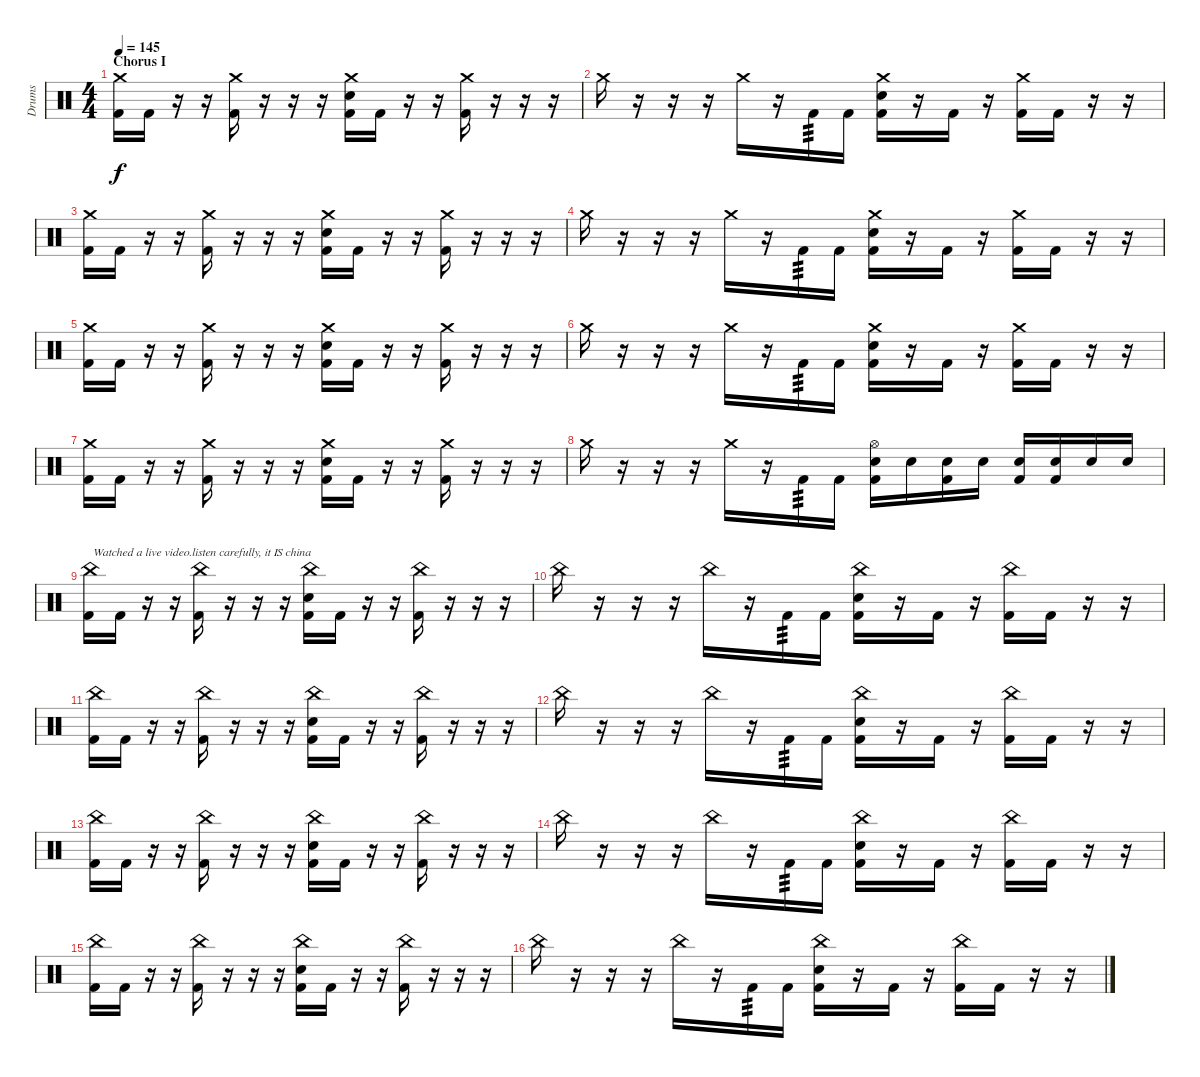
\track ("Drums" "Drums") {instrument percussion}
\staff {score}
\articulation defaults
\ts (4 4)
\section ("" "Chorus I")
\tempo 145
\clef neutral
\ks c
("Crash medium (hit)" "Kick (hit) 2").16{dy f} "Kick (hit) 2".16 r.16 r.16 ("Crash medium (hit)" "Kick (hit) 2").16 r.16 r.16 r.16 ("Crash medium (hit)" "Electric Snare (hit)" "Kick (hit) 2").16 "Kick (hit) 2".16 r.16 r.16 ("Crash medium (hit)" "Kick (hit) 2").16 r.16 r.16 r.16 |
"Crash medium (hit)".16 r.16 r.16 r.16 "Crash medium (hit)".16 r.16 "Kick (hit) 2".16{tp 3} "Kick (hit) 2".16 ("Crash medium (hit)" "Electric Snare (hit)" "Kick (hit) 2").16 r.16 "Kick (hit) 2".16 r.16 ("Crash medium (hit)" "Kick (hit) 2").16 "Kick (hit) 2".16 r.16 r.16 |
("Crash medium (hit)" "Kick (hit) 2").16 "Kick (hit) 2".16 r.16 r.16 ("Crash medium (hit)" "Kick (hit) 2").16 r.16 r.16 r.16 ("Crash medium (hit)" "Electric Snare (hit)" "Kick (hit) 2").16 "Kick (hit) 2".16 r.16 r.16 ("Crash medium (hit)" "Kick (hit) 2").16 r.16 r.16 r.16 |
"Crash medium (hit)".16 r.16 r.16 r.16 "Crash medium (hit)".16 r.16 "Kick (hit) 2".16{tp 3} "Kick (hit) 2".16 ("Crash medium (hit)" "Electric Snare (hit)" "Kick (hit) 2").16 r.16 "Kick (hit) 2".16 r.16 ("Crash medium (hit)" "Kick (hit) 2").16 "Kick (hit) 2".16 r.16 r.16 |
("Crash medium (hit)" "Kick (hit) 2").16 "Kick (hit) 2".16 r.16 r.16 ("Crash medium (hit)" "Kick (hit) 2").16 r.16 r.16 r.16 ("Crash medium (hit)" "Electric Snare (hit)" "Kick (hit) 2").16 "Kick (hit) 2".16 r.16 r.16 ("Crash medium (hit)" "Kick (hit) 2").16 r.16 r.16 r.16 |
"Crash medium (hit)".16 r.16 r.16 r.16 "Crash medium (hit)".16 r.16 "Kick (hit) 2".16{tp 3} "Kick (hit) 2".16 ("Crash medium (hit)" "Electric Snare (hit)" "Kick (hit) 2").16 r.16 "Kick (hit) 2".16 r.16 ("Crash medium (hit)" "Kick (hit) 2").16 "Kick (hit) 2".16 r.16 r.16 |
("Crash medium (hit)" "Kick (hit) 2").16 "Kick (hit) 2".16 r.16 r.16 ("Crash medium (hit)" "Kick (hit) 2").16 r.16 r.16 r.16 ("Crash medium (hit)" "Electric Snare (hit)" "Kick (hit) 2").16 "Kick (hit) 2".16 r.16 r.16 ("Crash medium (hit)" "Kick (hit) 2").16 r.16 r.16 r.16 |
"Crash medium (hit)".16 r.16 r.16 r.16 "Crash medium (hit)".16 r.16 "Kick (hit) 2".16{tp 3} "Kick (hit) 2".16 ("Hi-Hat (open)" "Electric Snare (hit)" "Kick (hit) 2").16 "Electric Snare (hit)".16 ("Electric Snare (hit)" "Kick (hit) 2").16 "Electric Snare (hit)".16 ("Electric Snare (hit)" "Kick (hit) 2").16 ("Electric Snare (hit)" "Kick (hit) 2").16 "Electric Snare (hit)".16 "Electric Snare (hit)".16 |
("China (hit)" "Kick (hit) 2").16{txt "Watched a live video.listen carefully, it IS china"} "Kick (hit) 2".16 r.16 r.16 ("China (hit)" "Kick (hit) 2").16 r.16 r.16 r.16 ("China (hit)" "Electric Snare (hit)" "Kick (hit) 2").16 "Kick (hit) 2".16 r.16 r.16 ("China (hit)" "Kick (hit) 2").16 r.16 r.16 r.16 |
"China (hit)".16 r.16 r.16 r.16 "China (hit)".16 r.16 "Kick (hit) 2".16{tp 3} "Kick (hit) 2".16 ("China (hit)" "Electric Snare (hit)" "Kick (hit) 2").16 r.16 "Kick (hit) 2".16 r.16 ("China (hit)" "Kick (hit) 2").16 "Kick (hit) 2".16 r.16 r.16 |
("China (hit)" "Kick (hit) 2").16 "Kick (hit) 2".16 r.16 r.16 ("China (hit)" "Kick (hit) 2").16 r.16 r.16 r.16 ("China (hit)" "Electric Snare (hit)" "Kick (hit) 2").16 "Kick (hit) 2".16 r.16 r.16 ("China (hit)" "Kick (hit) 2").16 r.16 r.16 r.16 |
"China (hit)".16 r.16 r.16 r.16 "China (hit)".16 r.16 "Kick (hit) 2".16{tp 3} "Kick (hit) 2".16 ("China (hit)" "Electric Snare (hit)" "Kick (hit) 2").16 r.16 "Kick (hit) 2".16 r.16 ("China (hit)" "Kick (hit) 2").16 "Kick (hit) 2".16 r.16 r.16 |
("China (hit)" "Kick (hit) 2").16 "Kick (hit) 2".16 r.16 r.16 ("China (hit)" "Kick (hit) 2").16 r.16 r.16 r.16 ("China (hit)" "Electric Snare (hit)" "Kick (hit) 2").16 "Kick (hit) 2".16 r.16 r.16 ("China (hit)" "Kick (hit) 2").16 r.16 r.16 r.16 |
"China (hit)".16 r.16 r.16 r.16 "China (hit)".16 r.16 "Kick (hit) 2".16{tp 3} "Kick (hit) 2".16 ("China (hit)" "Electric Snare (hit)" "Kick (hit) 2").16 r.16 "Kick (hit) 2".16 r.16 ("China (hit)" "Kick (hit) 2").16 "Kick (hit) 2".16 r.16 r.16 |
("China (hit)" "Kick (hit) 2").16 "Kick (hit) 2".16 r.16 r.16 ("China (hit)" "Kick (hit) 2").16 r.16 r.16 r.16 ("China (hit)" "Electric Snare (hit)" "Kick (hit) 2").16 "Kick (hit) 2".16 r.16 r.16 ("China (hit)" "Kick (hit) 2").16 r.16 r.16 r.16 |
"China (hit)".16 r.16 r.16 r.16 "China (hit)".16 r.16 "Kick (hit) 2".16{tp 3} "Kick (hit) 2".16 ("China (hit)" "Electric Snare (hit)" "Kick (hit) 2").16 r.16 "Kick (hit) 2".16 r.16 ("China (hit)" "Kick (hit) 2").16 "Kick (hit) 2".16 r.16 r.16
